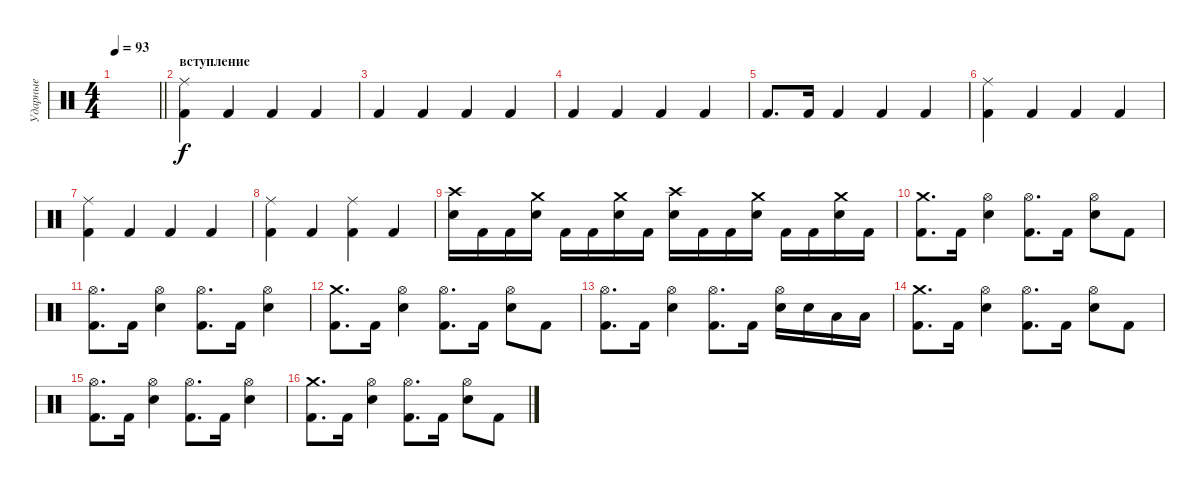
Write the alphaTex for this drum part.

\track ("Ударные" "Ударные") {instrument percussion}
\staff {score}
\articulation defaults
\ts (4 4)
\tempo 93
\clef neutral
\barLineRight lightlight
\ks c
|
\section ("" "вступление")
("Ride (middle)" "Kick (hit) 2").4 "Kick (hit) 2".4 "Kick (hit) 2".4 "Kick (hit) 2".4 |
"Kick (hit) 2".4 "Kick (hit) 2".4 "Kick (hit) 2".4 "Kick (hit) 2".4 |
"Kick (hit) 2".4 "Kick (hit) 2".4 "Kick (hit) 2".4 "Kick (hit) 2".4 |
"Kick (hit) 2".8{d} "Kick (hit) 2".16 "Kick (hit) 2".4 "Kick (hit) 2".4 "Kick (hit) 2".4 |
("Ride (middle)" "Kick (hit) 2").4 "Kick (hit) 2".4 "Kick (hit) 2".4 "Kick (hit) 2".4 |
("Ride (middle)" "Kick (hit) 2").4 "Kick (hit) 2".4 "Kick (hit) 2".4 "Kick (hit) 2".4 |
("Ride (middle)" "Kick (hit) 2").4 "Kick (hit) 2".4 ("Ride (middle)" "Kick (hit) 2").4 "Kick (hit) 2".4 |
("Snare (hit) 2" "Crash high (hit)").16 "Kick (hit) 2".16 "Kick (hit) 2".16 ("Snare (hit) 2" "Crash medium (hit)").16 "Kick (hit) 2".16 "Kick (hit) 2".16 ("Snare (hit) 2" "Crash medium (hit)").16 "Kick (hit) 2".16 ("Snare (hit) 2" "Crash high (hit)").16 "Kick (hit) 2".16 "Kick (hit) 2".16 ("Snare (hit) 2" "Crash medium (hit)").16 "Kick (hit) 2".16 "Kick (hit) 2".16 ("Snare (hit) 2" "Crash medium (hit)").16 "Kick (hit) 2".16 |
("Kick (hit) 2" "Crash medium (hit)").8{d} "Kick (hit) 2".16 ("Hi-Hat (open)" "Snare (hit) 2").4 ("Hi-Hat (open)" "Kick (hit) 2").8{d} "Kick (hit) 2".16 ("Hi-Hat (open)" "Snare (hit) 2").8 "Kick (hit) 2".8 |
("Kick (hit) 2" "Hi-Hat (open)").8{d} "Kick (hit) 2".16 ("Hi-Hat (open)" "Snare (hit) 2").4 ("Hi-Hat (open)" "Kick (hit) 2").8{d} "Kick (hit) 2".16 ("Hi-Hat (open)" "Snare (hit) 2").4 |
("Kick (hit) 2" "Crash medium (hit)").8{d} "Kick (hit) 2".16 ("Hi-Hat (open)" "Snare (hit) 2").4 ("Hi-Hat (open)" "Kick (hit) 2").8{d} "Kick (hit) 2".16 ("Hi-Hat (open)" "Snare (hit) 2").8 "Kick (hit) 2".8 |
("Kick (hit) 2" "Hi-Hat (open)").8{d} "Kick (hit) 2".16 ("Hi-Hat (open)" "Snare (hit) 2").4 ("Hi-Hat (open)" "Kick (hit) 2").8{d} "Kick (hit) 2".16 ("Hi-Hat (open)" "Snare (hit) 2").16 "Snare (hit) 2".16 "Low Tom (hit)".16 "Low Tom (hit)".16 |
("Kick (hit) 2" "Crash medium (hit)").8{d} "Kick (hit) 2".16 ("Hi-Hat (open)" "Snare (hit) 2").4 ("Hi-Hat (open)" "Kick (hit) 2").8{d} "Kick (hit) 2".16 ("Hi-Hat (open)" "Snare (hit) 2").8 "Kick (hit) 2".8 |
("Kick (hit) 2" "Hi-Hat (open)").8{d} "Kick (hit) 2".16 ("Hi-Hat (open)" "Snare (hit) 2").4 ("Hi-Hat (open)" "Kick (hit) 2").8{d} "Kick (hit) 2".16 ("Hi-Hat (open)" "Snare (hit) 2").4 |
("Kick (hit) 2" "Crash medium (hit)").8{d} "Kick (hit) 2".16 ("Hi-Hat (open)" "Snare (hit) 2").4 ("Hi-Hat (open)" "Kick (hit) 2").8{d} "Kick (hit) 2".16 ("Hi-Hat (open)" "Snare (hit) 2").8 "Kick (hit) 2".8
